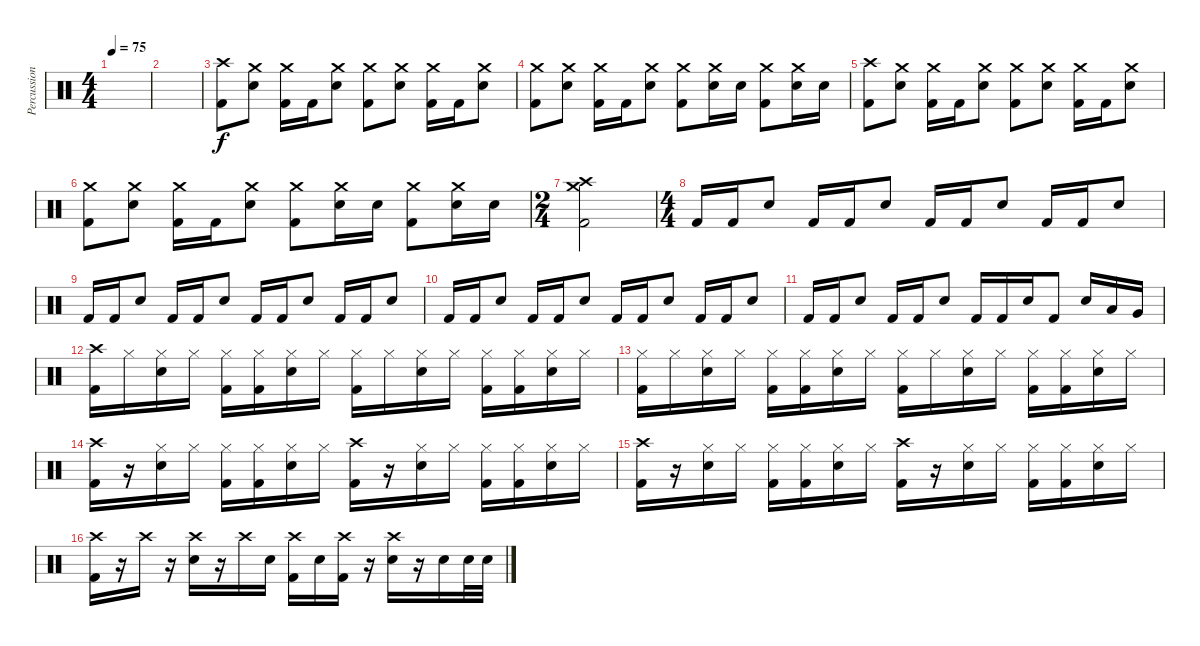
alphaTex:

\track ("Percussioni" "Percussion") {instrument percussion}
\staff {score}
\articulation defaults
\ts (4 4)
\tempo 75
\clef neutral
\ks c
|
|
("Crash high (hit)" "Kick (hit) 2").8 ("Crash medium (hit)" "Electric Snare (hit)").8 ("Crash medium (hit)" "Kick (hit) 2").16 "Kick (hit) 2".16 ("Crash medium (hit)" "Electric Snare (hit)").8 ("Crash medium (hit)" "Kick (hit) 2").8 ("Crash medium (hit)" "Electric Snare (hit)").8 ("Crash medium (hit)" "Kick (hit) 2").16 "Kick (hit) 2".16 ("Crash medium (hit)" "Electric Snare (hit)").8 |
("Crash medium (hit)" "Kick (hit) 2").8 ("Crash medium (hit)" "Electric Snare (hit)").8 ("Crash medium (hit)" "Kick (hit) 2").16 "Kick (hit) 2".16 ("Crash medium (hit)" "Electric Snare (hit)").8 ("Crash medium (hit)" "Kick (hit) 2").8 ("Crash medium (hit)" "Electric Snare (hit)").16 "Electric Snare (hit)".16 ("Crash medium (hit)" "Kick (hit) 2").8 ("Crash medium (hit)" "Electric Snare (hit)").16 "Electric Snare (hit)".16 |
("Crash high (hit)" "Kick (hit) 2").8 ("Crash medium (hit)" "Electric Snare (hit)").8 ("Crash medium (hit)" "Kick (hit) 2").16 "Kick (hit) 2".16 ("Crash medium (hit)" "Electric Snare (hit)").8 ("Crash medium (hit)" "Kick (hit) 2").8 ("Crash medium (hit)" "Electric Snare (hit)").8 ("Crash medium (hit)" "Kick (hit) 2").16 "Kick (hit) 2".16 ("Crash medium (hit)" "Electric Snare (hit)").8 |
("Crash medium (hit)" "Kick (hit) 2").8 ("Crash medium (hit)" "Electric Snare (hit)").8 ("Crash medium (hit)" "Kick (hit) 2").16 "Kick (hit) 2".16 ("Crash medium (hit)" "Electric Snare (hit)").8 ("Crash medium (hit)" "Kick (hit) 2").8 ("Crash medium (hit)" "Electric Snare (hit)").16 "Electric Snare (hit)".16 ("Crash medium (hit)" "Kick (hit) 2").8 ("Crash medium (hit)" "Electric Snare (hit)").16 "Electric Snare (hit)".16 |
\ts (2 4)
("Crash medium (hit)" "Kick (hit) 2" "Crash high (hit)").2 |
\ts (4 4)
"Kick (hit) 2".16{volume 10} "Kick (hit) 2".16 "Electric Snare (hit)".8 "Kick (hit) 2".16 "Kick (hit) 2".16 "Electric Snare (hit)".8 "Kick (hit) 2".16 "Kick (hit) 2".16 "Electric Snare (hit)".8 "Kick (hit) 2".16 "Kick (hit) 2".16 "Electric Snare (hit)".8 |
"Kick (hit) 2".16 "Kick (hit) 2".16 "Electric Snare (hit)".8 "Kick (hit) 2".16 "Kick (hit) 2".16 "Electric Snare (hit)".8 "Kick (hit) 2".16 "Kick (hit) 2".16 "Electric Snare (hit)".8 "Kick (hit) 2".16 "Kick (hit) 2".16 "Electric Snare (hit)".8 |
"Kick (hit) 2".16 "Kick (hit) 2".16 "Electric Snare (hit)".8 "Kick (hit) 2".16 "Kick (hit) 2".16 "Electric Snare (hit)".8 "Kick (hit) 2".16 "Kick (hit) 2".16 "Electric Snare (hit)".8 "Kick (hit) 2".16 "Kick (hit) 2".16 "Electric Snare (hit)".8 |
"Kick (hit) 2".16 "Kick (hit) 2".16 "Electric Snare (hit)".8 "Kick (hit) 2".16 "Kick (hit) 2".16 "Electric Snare (hit)".8 "Kick (hit) 2".16 "Kick (hit) 2".16 "Electric Snare (hit)".16 "Kick (hit) 2".8 "Electric Snare (hit)".16{volume 13} "Low Tom (hit)".16 "Very Low Tom (hit)".16 |
("Crash high (hit)" "Kick (hit) 2").16 "Hi-Hat (closed)".16 ("Hi-Hat (closed)" "Electric Snare (hit)").16 "Hi-Hat (closed)".16 ("Hi-Hat (closed)" "Kick (hit) 2").16 ("Hi-Hat (closed)" "Kick (hit) 2").16 ("Hi-Hat (closed)" "Electric Snare (hit)").16 "Hi-Hat (closed)".16 ("Hi-Hat (closed)" "Kick (hit) 2").16 "Hi-Hat (closed)".16 ("Hi-Hat (closed)" "Electric Snare (hit)").16 "Hi-Hat (closed)".16 ("Hi-Hat (closed)" "Kick (hit) 2").16 ("Hi-Hat (closed)" "Kick (hit) 2").16 ("Hi-Hat (closed)" "Electric Snare (hit)").16 "Hi-Hat (closed)".16 |
("Hi-Hat (closed)" "Kick (hit) 2").16 "Hi-Hat (closed)".16 ("Hi-Hat (closed)" "Electric Snare (hit)").16 "Hi-Hat (closed)".16 ("Hi-Hat (closed)" "Kick (hit) 2").16 ("Hi-Hat (closed)" "Kick (hit) 2").16 ("Hi-Hat (closed)" "Electric Snare (hit)").16 "Hi-Hat (closed)".16 ("Hi-Hat (closed)" "Kick (hit) 2").16 "Hi-Hat (closed)".16 ("Hi-Hat (closed)" "Electric Snare (hit)").16 "Hi-Hat (closed)".16 ("Hi-Hat (closed)" "Kick (hit) 2").16 ("Hi-Hat (closed)" "Kick (hit) 2").16 ("Hi-Hat (closed)" "Electric Snare (hit)").16 "Hi-Hat (closed)".16 |
("Crash high (hit)" "Kick (hit) 2").16 r.16 ("Hi-Hat (closed)" "Electric Snare (hit)").16 "Hi-Hat (closed)".16 ("Hi-Hat (closed)" "Kick (hit) 2").16 ("Hi-Hat (closed)" "Kick (hit) 2").16 ("Hi-Hat (closed)" "Electric Snare (hit)").16 "Hi-Hat (closed)".16 ("Crash high (hit)" "Kick (hit) 2").16 r.16 ("Hi-Hat (closed)" "Electric Snare (hit)").16 "Hi-Hat (closed)".16 ("Hi-Hat (closed)" "Kick (hit) 2").16 ("Hi-Hat (closed)" "Kick (hit) 2").16 ("Hi-Hat (closed)" "Electric Snare (hit)").16 "Hi-Hat (closed)".16 |
("Crash high (hit)" "Kick (hit) 2").16 r.16 ("Hi-Hat (closed)" "Electric Snare (hit)").16 "Hi-Hat (closed)".16 ("Hi-Hat (closed)" "Kick (hit) 2").16 ("Hi-Hat (closed)" "Kick (hit) 2").16 ("Hi-Hat (closed)" "Electric Snare (hit)").16 "Hi-Hat (closed)".16 ("Crash high (hit)" "Kick (hit) 2").16 r.16 ("Hi-Hat (closed)" "Electric Snare (hit)").16 "Hi-Hat (closed)".16 ("Hi-Hat (closed)" "Kick (hit) 2").16 ("Hi-Hat (closed)" "Kick (hit) 2").16 ("Hi-Hat (closed)" "Electric Snare (hit)").16 "Hi-Hat (closed)".16 |
("Crash high (hit)" "Kick (hit) 2").16 r.16 "Crash high (hit)".16 r.16 ("Crash high (hit)" "Electric Snare (hit)").16 r.16 "Crash high (hit)".16 "Electric Snare (hit)".16 ("Crash high (hit)" "Kick (hit) 2").16 "Electric Snare (hit)".16 ("Crash high (hit)" "Kick (hit) 2").16 r.16 ("Crash high (hit)" "Electric Snare (hit)").16 r.16 "Electric Snare (hit)".16 "Electric Snare (hit)".32 "Electric Snare (hit)".32
